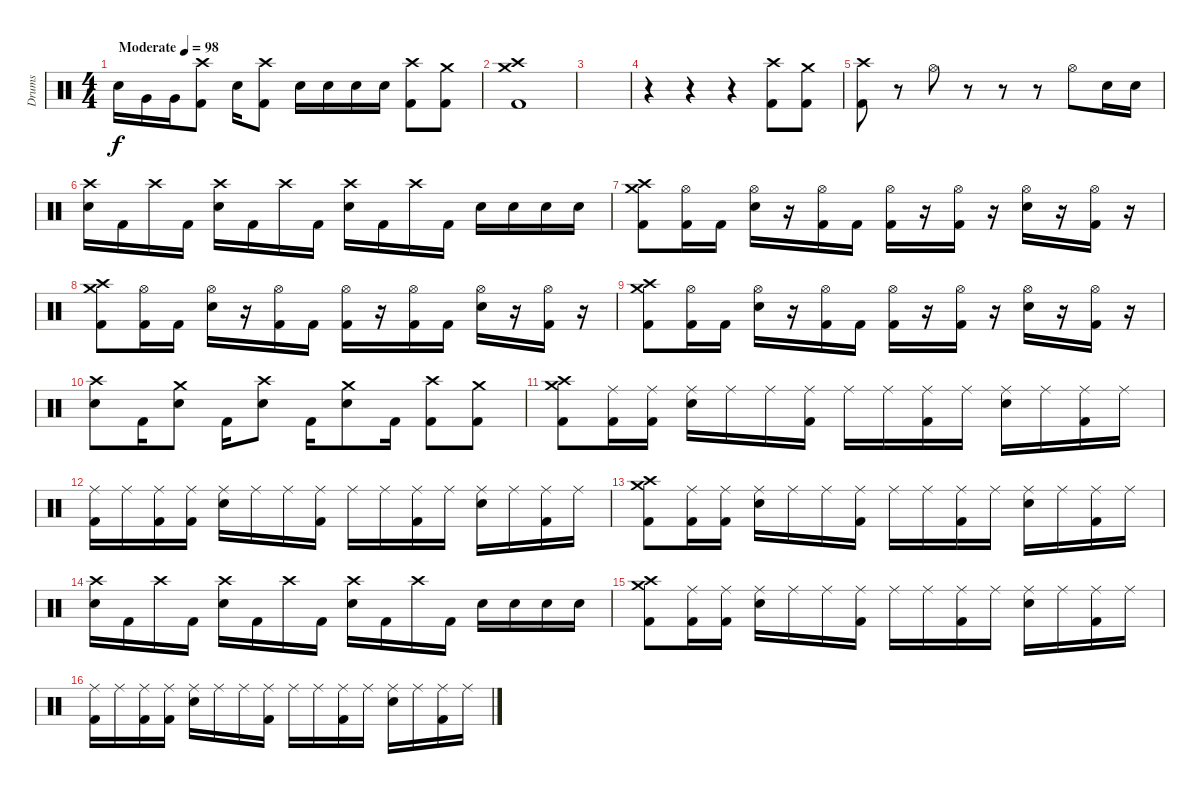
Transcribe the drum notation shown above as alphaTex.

\track ("Drums" "Drums") {instrument percussion}
\staff {score}
\articulation defaults
\ts (4 4)
\tempo (98 "Moderate")
\clef neutral
\ks c "Electric Snare (hit)".16{dy f} "Very Low Tom (hit)".16 "Very Low Tom (hit)".16
("Crash high (hit)" "Kick (hit) 2").8 "Electric Snare (hit)".16 ("Crash high (hit)" "Kick (hit) 2").8 "Electric Snare (hit)".16 "Electric Snare (hit)".16 "Electric Snare (hit)".16 "Electric Snare (hit)".16 ("Crash high (hit)" "Kick (hit) 2").8 ("Crash medium (hit)" "Kick (hit) 2").8 |
("Crash high (hit)" "Crash medium (hit)" "Kick (hit) 2").1 |
|
r.4 r.4 r.4 ("Crash high (hit)" "Kick (hit) 2").8 ("Crash medium (hit)" "Kick (hit) 2").8 |
("Crash high (hit)" "Kick (hit) 2").8 r.8 "Hi-Hat (open)".8 r.8 r.8 r.8 "Hi-Hat (open)".8 "Electric Snare (hit)".16 "Electric Snare (hit)".16 |
("Crash high (hit)" "Electric Snare (hit)").16 "Kick (hit) 2".16 "Crash high (hit)".16 "Kick (hit) 2".16 ("Crash high (hit)" "Electric Snare (hit)").16 "Kick (hit) 2".16 "Crash high (hit)".16 "Kick (hit) 2".16 ("Crash high (hit)" "Electric Snare (hit)").16 "Kick (hit) 2".16 "Crash high (hit)".16 "Kick (hit) 2".16 "Electric Snare (hit)".16 "Electric Snare (hit)".16 "Electric Snare (hit)".16 "Electric Snare (hit)".16 |
("Crash high (hit)" "Crash medium (hit)" "Kick (hit) 2").8 ("Hi-Hat (open)" "Kick (hit) 2").16 "Kick (hit) 2".16 ("Hi-Hat (open)" "Electric Snare (hit)").16 r.16 ("Hi-Hat (open)" "Kick (hit) 2").16 "Kick (hit) 2".16 ("Hi-Hat (open)" "Kick (hit) 2").16 r.16 ("Hi-Hat (open)" "Kick (hit) 2").16 r.16 ("Hi-Hat (open)" "Electric Snare (hit)").16 r.16 ("Hi-Hat (open)" "Kick (hit) 2").16 r.16 |
("Crash high (hit)" "Crash medium (hit)" "Kick (hit) 2").8 ("Hi-Hat (open)" "Kick (hit) 2").16 "Kick (hit) 2".16 ("Hi-Hat (open)" "Electric Snare (hit)").16 r.16 ("Hi-Hat (open)" "Kick (hit) 2").16 "Kick (hit) 2".16 ("Hi-Hat (open)" "Kick (hit) 2").16 r.16 ("Hi-Hat (open)" "Kick (hit) 2").16 "Kick (hit) 2".16 ("Hi-Hat (open)" "Electric Snare (hit)").16 r.16 ("Hi-Hat (open)" "Kick (hit) 2").16 r.16 |
("Crash high (hit)" "Crash medium (hit)" "Kick (hit) 2").8 ("Hi-Hat (open)" "Kick (hit) 2").16 "Kick (hit) 2".16 ("Hi-Hat (open)" "Electric Snare (hit)").16 r.16 ("Hi-Hat (open)" "Kick (hit) 2").16 "Kick (hit) 2".16 ("Hi-Hat (open)" "Kick (hit) 2").16 r.16 ("Hi-Hat (open)" "Kick (hit) 2").16 r.16 ("Hi-Hat (open)" "Electric Snare (hit)").16 r.16 ("Hi-Hat (open)" "Kick (hit) 2").16 r.16 |
("Crash high (hit)" "Electric Snare (hit)").8 "Kick (hit) 2".16 ("Crash medium (hit)" "Electric Snare (hit)").8 "Kick (hit) 2".16 ("Crash high (hit)" "Electric Snare (hit)").8 "Kick (hit) 2".16 ("Crash medium (hit)" "Electric Snare (hit)").8 "Kick (hit) 2".16 ("Crash high (hit)" "Kick (hit) 2").8 ("Crash medium (hit)" "Kick (hit) 2").8 |
("Crash high (hit)" "Crash medium (hit)" "Kick (hit) 2").8 ("Ride (middle)" "Kick (hit) 2").16 ("Ride (middle)" "Kick (hit) 2").16 ("Ride (middle)" "Electric Snare (hit)").16 "Ride (middle)".16 "Ride (middle)".16 ("Ride (middle)" "Kick (hit) 2").16 "Ride (middle)".16 "Ride (middle)".16 ("Ride (middle)" "Kick (hit) 2").16 "Ride (middle)".16 ("Ride (middle)" "Electric Snare (hit)").16 "Ride (middle)".16 ("Ride (middle)" "Kick (hit) 2").16 "Ride (middle)".16 |
("Ride (middle)" "Kick (hit) 2").16 "Ride (middle)".16 ("Ride (middle)" "Kick (hit) 2").16 ("Ride (middle)" "Kick (hit) 2").16 ("Ride (middle)" "Electric Snare (hit)").16 "Ride (middle)".16 "Ride (middle)".16 ("Ride (middle)" "Kick (hit) 2").16 "Ride (middle)".16 "Ride (middle)".16 ("Ride (middle)" "Kick (hit) 2").16 "Ride (middle)".16 ("Ride (middle)" "Electric Snare (hit)").16 "Ride (middle)".16 ("Ride (middle)" "Kick (hit) 2").16 "Ride (middle)".16 |
("Crash high (hit)" "Crash medium (hit)" "Kick (hit) 2").8 ("Ride (middle)" "Kick (hit) 2").16 ("Ride (middle)" "Kick (hit) 2").16 ("Ride (middle)" "Electric Snare (hit)").16 "Ride (middle)".16 "Ride (middle)".16 ("Ride (middle)" "Kick (hit) 2").16 "Ride (middle)".16 "Ride (middle)".16 ("Ride (middle)" "Kick (hit) 2").16 "Ride (middle)".16 ("Ride (middle)" "Electric Snare (hit)").16 "Ride (middle)".16 ("Ride (middle)" "Kick (hit) 2").16 "Ride (middle)".16 |
("Crash high (hit)" "Electric Snare (hit)").16 "Kick (hit) 2".16 "Crash high (hit)".16 "Kick (hit) 2".16 ("Crash high (hit)" "Electric Snare (hit)").16 "Kick (hit) 2".16 "Crash high (hit)".16 "Kick (hit) 2".16 ("Crash high (hit)" "Electric Snare (hit)").16 "Kick (hit) 2".16 "Crash high (hit)".16 "Kick (hit) 2".16 "Electric Snare (hit)".16 "Electric Snare (hit)".16 "Electric Snare (hit)".16 "Electric Snare (hit)".16 |
("Crash high (hit)" "Crash medium (hit)" "Kick (hit) 2").8 ("Ride (middle)" "Kick (hit) 2").16 ("Ride (middle)" "Kick (hit) 2").16 ("Ride (middle)" "Electric Snare (hit)").16 "Ride (middle)".16 "Ride (middle)".16 ("Ride (middle)" "Kick (hit) 2").16 "Ride (middle)".16 "Ride (middle)".16 ("Ride (middle)" "Kick (hit) 2").16 "Ride (middle)".16 ("Ride (middle)" "Electric Snare (hit)").16 "Ride (middle)".16 ("Ride (middle)" "Kick (hit) 2").16 "Ride (middle)".16 |
("Ride (middle)" "Kick (hit) 2").16 "Ride (middle)".16 ("Ride (middle)" "Kick (hit) 2").16 ("Ride (middle)" "Kick (hit) 2").16 ("Ride (middle)" "Electric Snare (hit)").16 "Ride (middle)".16 "Ride (middle)".16 ("Ride (middle)" "Kick (hit) 2").16 "Ride (middle)".16 "Ride (middle)".16 ("Ride (middle)" "Kick (hit) 2").16 "Ride (middle)".16 ("Ride (middle)" "Electric Snare (hit)").16 "Ride (middle)".16 ("Ride (middle)" "Kick (hit) 2").16 "Ride (middle)".16
